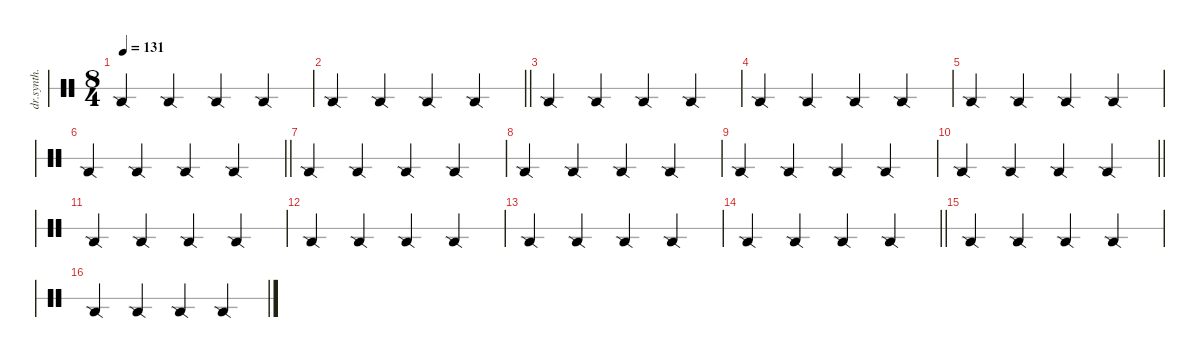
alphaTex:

\defaultSystemsLayout 4
\hideDynamics
\bracketExtendMode nobrackets
\otherSystemsTrackNameOrientation horizontal
\track ("Synth Drum" "dr.synth.") {instrument percussion}
\staff {score 1}
\articulation defaults
\ts (8 4)
\tempo 131
\clef neutral
\ks c "Snare (side stick) 2".2{dy mf beam Up} "Snare (side stick) 2".2{beam Up} "Snare (side stick) 2".2{beam Up} "Snare (side stick) 2".2{beam Up}
|
\barLineRight lightlight "Snare (side stick) 2".2{beam Up} "Snare (side stick) 2".2{beam Up} "Snare (side stick) 2".2{beam Up} "Snare (side stick) 2".2{beam Up}
|
"Snare (side stick) 2".2{beam Up} "Snare (side stick) 2".2{beam Up} "Snare (side stick) 2".2{beam Up} "Snare (side stick) 2".2{beam Up} |
"Snare (side stick) 2".2{beam Up} "Snare (side stick) 2".2{beam Up} "Snare (side stick) 2".2{beam Up} "Snare (side stick) 2".2{beam Up} |
"Snare (side stick) 2".2{beam Up} "Snare (side stick) 2".2{beam Up} "Snare (side stick) 2".2{beam Up} "Snare (side stick) 2".2{beam Up} |
\barLineRight lightlight "Snare (side stick) 2".2{beam Up} "Snare (side stick) 2".2{beam Up} "Snare (side stick) 2".2{beam Up} "Snare (side stick) 2".2{beam Up}
|
"Snare (side stick) 2".2{beam Up} "Snare (side stick) 2".2{beam Up} "Snare (side stick) 2".2{beam Up} "Snare (side stick) 2".2{beam Up} |
"Snare (side stick) 2".2{beam Up} "Snare (side stick) 2".2{beam Up} "Snare (side stick) 2".2{beam Up} "Snare (side stick) 2".2{beam Up} |
"Snare (side stick) 2".2{beam Up} "Snare (side stick) 2".2{beam Up} "Snare (side stick) 2".2{beam Up} "Snare (side stick) 2".2{beam Up} |
\barLineRight lightlight "Snare (side stick) 2".2{beam Up} "Snare (side stick) 2".2{beam Up} "Snare (side stick) 2".2{beam Up} "Snare (side stick) 2".2{beam Up}
|
"Snare (side stick) 2".2{beam Up} "Snare (side stick) 2".2{beam Up} "Snare (side stick) 2".2{beam Up} "Snare (side stick) 2".2{beam Up} |
"Snare (side stick) 2".2{beam Up} "Snare (side stick) 2".2{beam Up} "Snare (side stick) 2".2{beam Up} "Snare (side stick) 2".2{beam Up} |
"Snare (side stick) 2".2{beam Up} "Snare (side stick) 2".2{beam Up} "Snare (side stick) 2".2{beam Up} "Snare (side stick) 2".2{beam Up} |
\barLineRight lightlight "Snare (side stick) 2".2{beam Up} "Snare (side stick) 2".2{beam Up} "Snare (side stick) 2".2{beam Up} "Snare (side stick) 2".2{beam Up}
|
"Snare (side stick) 2".2{beam Up} "Snare (side stick) 2".2{beam Up} "Snare (side stick) 2".2{beam Up} "Snare (side stick) 2".2{beam Up} |
"Snare (side stick) 2".2{beam Up} "Snare (side stick) 2".2{beam Up} "Snare (side stick) 2".2{beam Up} "Snare (side stick) 2".2{beam Up}
